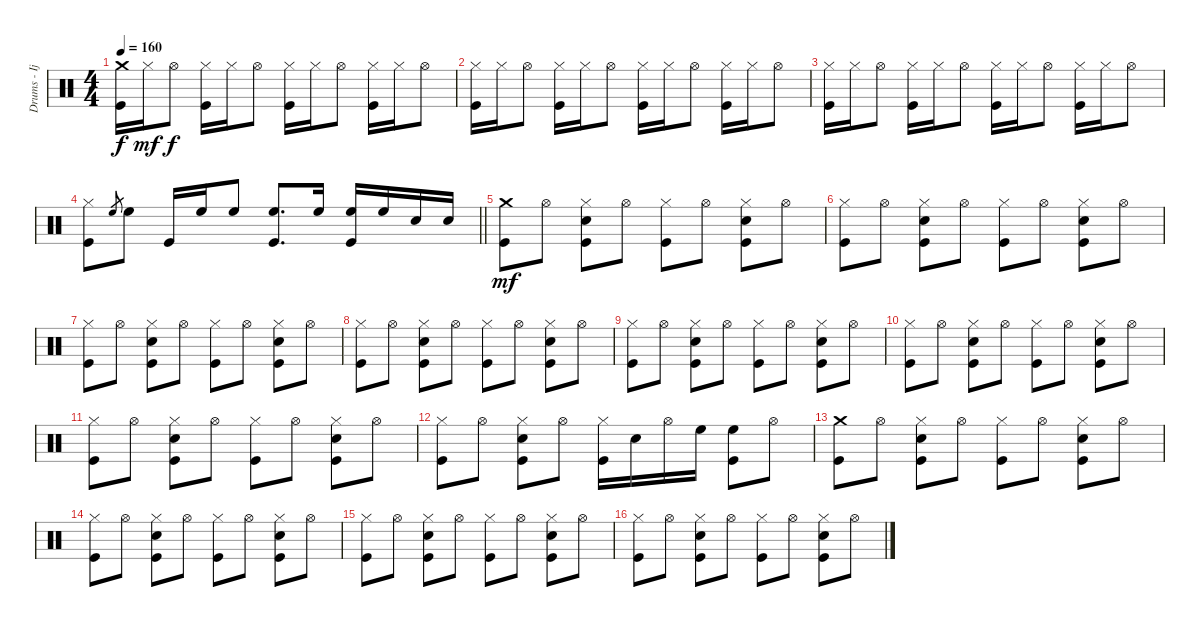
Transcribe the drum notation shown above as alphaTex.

\track ("Drums - Ijichi" "Drums - Ij") {instrument percussion}
\staff {score}
\articulation defaults
\ts (4 4)
\tempo 160
\clef neutral
\ks c
("Crash medium (hit)" "Kick (hit)").16{dy f} "Hi-Hat (closed)".16{dy mf} "Hi-Hat (open)".8{dy f} ("Hi-Hat (closed)" "Kick (hit)").16 "Hi-Hat (closed)".16 "Hi-Hat (open)".8 ("Hi-Hat (closed)" "Kick (hit)").16 "Hi-Hat (closed)".16 "Hi-Hat (open)".8 ("Hi-Hat (closed)" "Kick (hit)").16 "Hi-Hat (closed)".16 "Hi-Hat (open)".8 |
("Hi-Hat (closed)" "Kick (hit)").16 "Hi-Hat (closed)".16 "Hi-Hat (open)".8 ("Hi-Hat (closed)" "Kick (hit)").16 "Hi-Hat (closed)".16 "Hi-Hat (open)".8 ("Hi-Hat (closed)" "Kick (hit)").16 "Hi-Hat (closed)".16 "Hi-Hat (open)".8 ("Hi-Hat (closed)" "Kick (hit)").16 "Hi-Hat (closed)".16 "Hi-Hat (open)".8 |
("Hi-Hat (closed)" "Kick (hit)").16 "Hi-Hat (closed)".16 "Hi-Hat (open)".8 ("Hi-Hat (closed)" "Kick (hit)").16 "Hi-Hat (closed)".16 "Hi-Hat (open)".8 ("Hi-Hat (closed)" "Kick (hit)").16 "Hi-Hat (closed)".16 "Hi-Hat (open)".8 ("Hi-Hat (closed)" "Kick (hit)").16 "Hi-Hat (closed)".16 "Hi-Hat (open)".8 |
\barLineRight lightlight
("Hi-Hat (closed)" "Kick (hit)").8 "High Floor Tom (hit)".8{gr} "High Floor Tom (hit)".8 "Kick (hit)".16 "High Floor Tom (hit)".16 "High Floor Tom (hit)".8 ("High Floor Tom (hit)" "Kick (hit)").8{d} "High Floor Tom (hit)".16 ("High Floor Tom (hit)" "Kick (hit)").16 "High Floor Tom (hit)".16 "Electric Snare (hit)".16 "Electric Snare (hit)".16 |
("Crash medium (hit)" "Kick (hit)").8{dy mf} "Hi-Hat (open)".8 ("Hi-Hat (closed)" "Electric Snare (hit)" "Kick (hit)").8 "Hi-Hat (open)".8 ("Hi-Hat (closed)" "Kick (hit)").8 "Hi-Hat (open)".8 ("Hi-Hat (closed)" "Electric Snare (hit)" "Kick (hit)").8 "Hi-Hat (open)".8 |
("Hi-Hat (closed)" "Kick (hit)").8 "Hi-Hat (open)".8 ("Hi-Hat (closed)" "Electric Snare (hit)" "Kick (hit)").8 "Hi-Hat (open)".8 ("Hi-Hat (closed)" "Kick (hit)").8 "Hi-Hat (open)".8 ("Hi-Hat (closed)" "Electric Snare (hit)" "Kick (hit)").8 "Hi-Hat (open)".8 |
("Hi-Hat (closed)" "Kick (hit)").8 "Hi-Hat (open)".8 ("Hi-Hat (closed)" "Electric Snare (hit)" "Kick (hit)").8 "Hi-Hat (open)".8 ("Hi-Hat (closed)" "Kick (hit)").8 "Hi-Hat (open)".8 ("Hi-Hat (closed)" "Electric Snare (hit)" "Kick (hit)").8 "Hi-Hat (open)".8 |
("Hi-Hat (closed)" "Kick (hit)").8 "Hi-Hat (open)".8 ("Hi-Hat (closed)" "Electric Snare (hit)" "Kick (hit)").8 "Hi-Hat (open)".8 ("Hi-Hat (closed)" "Kick (hit)").8 "Hi-Hat (open)".8 ("Hi-Hat (closed)" "Electric Snare (hit)" "Kick (hit)").8 "Hi-Hat (open)".8 |
("Hi-Hat (closed)" "Kick (hit)").8 "Hi-Hat (open)".8 ("Hi-Hat (closed)" "Electric Snare (hit)" "Kick (hit)").8 "Hi-Hat (open)".8 ("Hi-Hat (closed)" "Kick (hit)").8 "Hi-Hat (open)".8 ("Hi-Hat (closed)" "Electric Snare (hit)" "Kick (hit)").8 "Hi-Hat (open)".8 |
("Hi-Hat (closed)" "Kick (hit)").8 "Hi-Hat (open)".8 ("Hi-Hat (closed)" "Electric Snare (hit)" "Kick (hit)").8 "Hi-Hat (open)".8 ("Hi-Hat (closed)" "Kick (hit)").8 "Hi-Hat (open)".8 ("Hi-Hat (closed)" "Electric Snare (hit)" "Kick (hit)").8 "Hi-Hat (open)".8 |
("Hi-Hat (closed)" "Kick (hit)").8 "Hi-Hat (open)".8 ("Hi-Hat (closed)" "Electric Snare (hit)" "Kick (hit)").8 "Hi-Hat (open)".8 ("Hi-Hat (closed)" "Kick (hit)").8 "Hi-Hat (open)".8 ("Hi-Hat (closed)" "Electric Snare (hit)" "Kick (hit)").8 "Hi-Hat (open)".8 |
("Hi-Hat (closed)" "Kick (hit)").8 "Hi-Hat (open)".8 ("Hi-Hat (closed)" "Electric Snare (hit)" "Kick (hit)").8 "Hi-Hat (open)".8 ("Hi-Hat (closed)" "Kick (hit)").16 "Electric Snare (hit)".16 "Hi-Hat (open)".16 "High Floor Tom (hit)".16 ("High Floor Tom (hit)" "Kick (hit)").8 "Hi-Hat (open)".8 |
("Crash medium (hit)" "Kick (hit)").8 "Hi-Hat (open)".8 ("Hi-Hat (closed)" "Electric Snare (hit)" "Kick (hit)").8 "Hi-Hat (open)".8 ("Hi-Hat (closed)" "Kick (hit)").8 "Hi-Hat (open)".8 ("Hi-Hat (closed)" "Electric Snare (hit)" "Kick (hit)").8 "Hi-Hat (open)".8 |
("Hi-Hat (closed)" "Kick (hit)").8 "Hi-Hat (open)".8 ("Hi-Hat (closed)" "Electric Snare (hit)" "Kick (hit)").8 "Hi-Hat (open)".8 ("Hi-Hat (closed)" "Kick (hit)").8 "Hi-Hat (open)".8 ("Hi-Hat (closed)" "Electric Snare (hit)" "Kick (hit)").8 "Hi-Hat (open)".8 |
("Hi-Hat (closed)" "Kick (hit)").8 "Hi-Hat (open)".8 ("Hi-Hat (closed)" "Electric Snare (hit)" "Kick (hit)").8 "Hi-Hat (open)".8 ("Hi-Hat (closed)" "Kick (hit)").8 "Hi-Hat (open)".8 ("Hi-Hat (closed)" "Electric Snare (hit)" "Kick (hit)").8 "Hi-Hat (open)".8 |
("Hi-Hat (closed)" "Kick (hit)").8 "Hi-Hat (open)".8 ("Hi-Hat (closed)" "Electric Snare (hit)" "Kick (hit)").8 "Hi-Hat (open)".8 ("Hi-Hat (closed)" "Kick (hit)").8 "Hi-Hat (open)".8 ("Hi-Hat (closed)" "Electric Snare (hit)" "Kick (hit)").8 "Hi-Hat (open)".8
